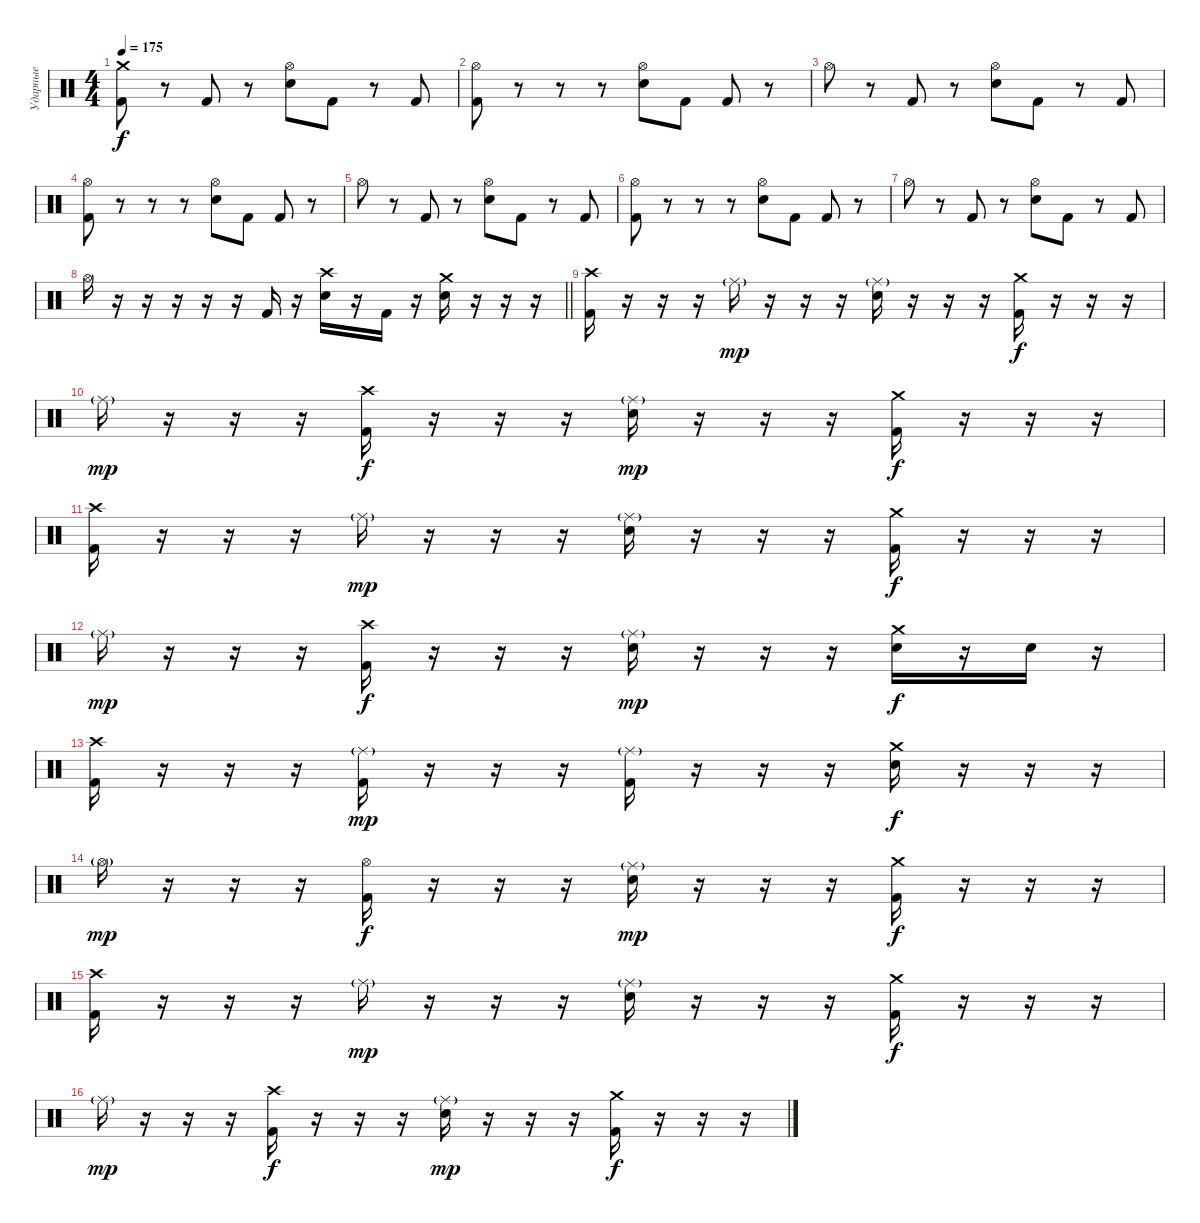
\track ("Ударные" "Ударные") {instrument percussion}
\staff {score}
\articulation defaults
\ts (4 4)
\tempo 175
\clef neutral
\ks c
("Crash medium (hit)" "Kick (hit) 2").8{dy f} r.8 "Kick (hit) 2".8 r.8 ("Hi-Hat (open)" "Electric Snare (hit)").8 "Kick (hit) 2".8 r.8 "Kick (hit) 2".8 |
("Hi-Hat (open)" "Kick (hit) 2").8 r.8 r.8 r.8 ("Hi-Hat (open)" "Electric Snare (hit)").8 "Kick (hit) 2".8 "Kick (hit) 2".8 r.8 |
"Hi-Hat (open)".8 r.8 "Kick (hit) 2".8 r.8 ("Hi-Hat (open)" "Electric Snare (hit)").8 "Kick (hit) 2".8 r.8 "Kick (hit) 2".8 |
("Hi-Hat (open)" "Kick (hit) 2").8 r.8 r.8 r.8 ("Hi-Hat (open)" "Electric Snare (hit)").8 "Kick (hit) 2".8 "Kick (hit) 2".8 r.8 |
"Hi-Hat (open)".8 r.8 "Kick (hit) 2".8 r.8 ("Hi-Hat (open)" "Electric Snare (hit)").8 "Kick (hit) 2".8 r.8 "Kick (hit) 2".8 |
("Hi-Hat (open)" "Kick (hit) 2").8 r.8 r.8 r.8 ("Hi-Hat (open)" "Electric Snare (hit)").8 "Kick (hit) 2".8 "Kick (hit) 2".8 r.8 |
"Hi-Hat (open)".8 r.8 "Kick (hit) 2".8 r.8 ("Hi-Hat (open)" "Electric Snare (hit)").8 "Kick (hit) 2".8 r.8 "Kick (hit) 2".8 |
\barLineRight lightlight "Hi-Hat (open)".16
r.16 r.16 r.16 r.16 r.16 "Kick (hit) 2".16 r.16 ("Crash high (hit)" "Electric Snare (hit)").16 r.16 "Kick (hit) 2".16 r.16 ("Crash medium (hit)" "Electric Snare (hit)").16 r.16 r.16 r.16 |
\section ("" " ")
("Crash high (hit)" "Kick (hit) 2").16 r.16 r.16 r.16 "Ride (middle)"{g}.16{dy mp} r.16 r.16 r.16 ("Ride (middle)"{g} "Electric Snare (hit)").16 r.16 r.16 r.16 ("Crash medium (hit)" "Kick (hit) 2").16{dy f} r.16 r.16 r.16 |
"Ride (middle)"{g}.16{dy mp} r.16 r.16 r.16 ("Crash high (hit)" "Kick (hit) 2").16{dy f} r.16 r.16 r.16 ("Ride (middle)"{g} "Electric Snare (hit)").16{dy mp} r.16 r.16 r.16 ("Crash medium (hit)" "Kick (hit) 2").16{dy f} r.16 r.16 r.16 |
("Crash high (hit)" "Kick (hit) 2").16 r.16 r.16 r.16 "Ride (middle)"{g}.16{dy mp} r.16 r.16 r.16 ("Ride (middle)"{g} "Electric Snare (hit)").16 r.16 r.16 r.16 ("Crash medium (hit)" "Kick (hit) 2").16{dy f} r.16 r.16 r.16 |
"Ride (middle)"{g}.16{dy mp} r.16 r.16 r.16 ("Crash high (hit)" "Kick (hit) 2").16{dy f} r.16 r.16 r.16 ("Ride (middle)"{g} "Electric Snare (hit)").16{dy mp} r.16 r.16 r.16 ("Crash medium (hit)" "Electric Snare (hit)").16{dy f} r.16 "Electric Snare (hit)".16 r.16 |
("Crash high (hit)" "Kick (hit) 2").16 r.16 r.16 r.16 ("Ride (middle)"{g} "Kick (hit) 2").16{dy mp} r.16 r.16 r.16 ("Ride (middle)"{g} "Kick (hit) 2").16 r.16 r.16 r.16 ("Crash medium (hit)" "Electric Snare (hit)").16{dy f} r.16 r.16 r.16 |
"Hi-Hat (open)"{g}.16{dy mp} r.16 r.16 r.16 ("Hi-Hat (open)" "Kick (hit) 2").16{dy f} r.16 r.16 r.16 ("Ride (middle)"{g} "Electric Snare (hit)").16{dy mp} r.16 r.16 r.16 ("Crash medium (hit)" "Kick (hit) 2").16{dy f} r.16 r.16 r.16 |
("Crash high (hit)" "Kick (hit) 2").16 r.16 r.16 r.16 "Ride (middle)"{g}.16{dy mp} r.16 r.16 r.16 ("Ride (middle)"{g} "Electric Snare (hit)").16 r.16 r.16 r.16 ("Crash medium (hit)" "Kick (hit) 2").16{dy f} r.16 r.16 r.16 |
"Ride (middle)"{g}.16{dy mp} r.16 r.16 r.16 ("Crash high (hit)" "Kick (hit) 2").16{dy f} r.16 r.16 r.16 ("Ride (middle)"{g} "Electric Snare (hit)").16{dy mp} r.16 r.16 r.16 ("Crash medium (hit)" "Kick (hit) 2").16{dy f} r.16 r.16 r.16
